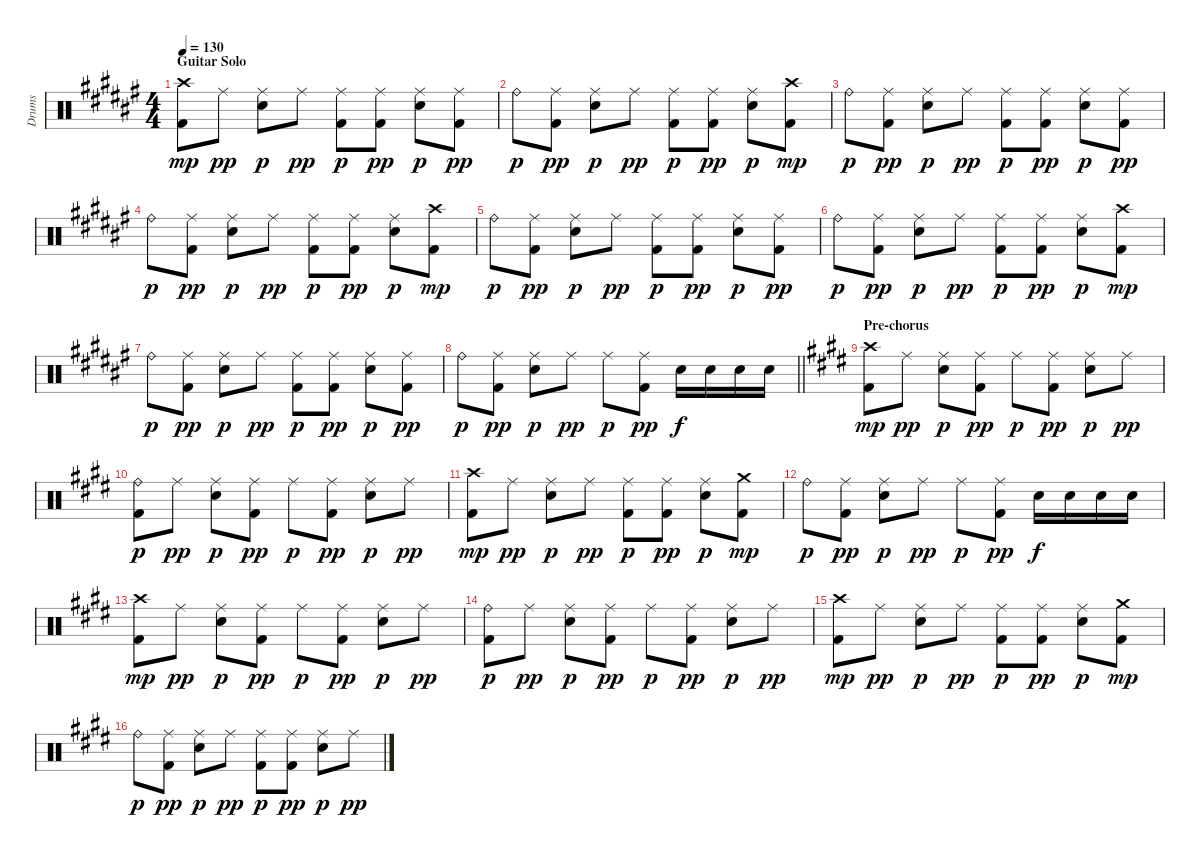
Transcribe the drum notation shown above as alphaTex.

\track ("Drums" "Drums") {instrument percussion}
\staff {score}
\articulation defaults
\ts (4 4)
\section ("" "Guitar Solo")
\tempo 130
\clef neutral
\ks f#
("Crash high (hit)" "Kick (hit) 2").8{dy mp} "Ride (middle)".8{dy pp} ("Ride (middle)" "Electric Snare (hit)").8{dy p} "Ride (middle)".8{dy pp} ("Ride (middle)" "Kick (hit) 2").8{dy p} ("Ride (middle)" "Kick (hit) 2").8{dy pp} ("Ride (middle)" "Electric Snare (hit)").8{dy p} ("Ride (middle)" "Kick (hit) 2").8{dy pp} |
\ks d#minor "Ride (bell)".8{dy p}
("Ride (middle)" "Kick (hit) 2").8{dy pp} ("Ride (middle)" "Electric Snare (hit)").8{dy p} "Ride (middle)".8{dy pp} ("Ride (middle)" "Kick (hit) 2").8{dy p} ("Ride (middle)" "Kick (hit) 2").8{dy pp} ("Ride (middle)" "Electric Snare (hit)").8{dy p} ("Crash high (hit)" "Kick (hit) 2").8{dy mp} |
\ks f# "Ride (bell)".8{dy p}
("Ride (middle)" "Kick (hit) 2").8{dy pp} ("Ride (middle)" "Electric Snare (hit)").8{dy p} "Ride (middle)".8{dy pp} ("Ride (middle)" "Kick (hit) 2").8{dy p} ("Ride (middle)" "Kick (hit) 2").8{dy pp} ("Ride (middle)" "Electric Snare (hit)").8{dy p} ("Ride (middle)" "Kick (hit) 2").8{dy pp} |
\ks d#minor "Ride (bell)".8{dy p}
("Ride (middle)" "Kick (hit) 2").8{dy pp} ("Ride (middle)" "Electric Snare (hit)").8{dy p} "Ride (middle)".8{dy pp} ("Ride (middle)" "Kick (hit) 2").8{dy p} ("Ride (middle)" "Kick (hit) 2").8{dy pp} ("Ride (middle)" "Electric Snare (hit)").8{dy p} ("Crash high (hit)" "Kick (hit) 2").8{dy mp} |
\ks f# "Ride (bell)".8{dy p}
("Ride (middle)" "Kick (hit) 2").8{dy pp} ("Ride (middle)" "Electric Snare (hit)").8{dy p} "Ride (middle)".8{dy pp} ("Ride (middle)" "Kick (hit) 2").8{dy p} ("Ride (middle)" "Kick (hit) 2").8{dy pp} ("Ride (middle)" "Electric Snare (hit)").8{dy p} ("Ride (middle)" "Kick (hit) 2").8{dy pp} |
\ks d#minor "Ride (bell)".8{dy p}
("Ride (middle)" "Kick (hit) 2").8{dy pp} ("Ride (middle)" "Electric Snare (hit)").8{dy p} "Ride (middle)".8{dy pp} ("Ride (middle)" "Kick (hit) 2").8{dy p} ("Ride (middle)" "Kick (hit) 2").8{dy pp} ("Ride (middle)" "Electric Snare (hit)").8{dy p} ("Crash high (hit)" "Kick (hit) 2").8{dy mp} |
\ks f# "Ride (bell)".8{dy p}
("Ride (middle)" "Kick (hit) 2").8{dy pp} ("Ride (middle)" "Electric Snare (hit)").8{dy p} "Ride (middle)".8{dy pp} ("Ride (middle)" "Kick (hit) 2").8{dy p} ("Ride (middle)" "Kick (hit) 2").8{dy pp} ("Ride (middle)" "Electric Snare (hit)").8{dy p} ("Ride (middle)" "Kick (hit) 2").8{dy pp} |
\barLineRight lightlight
\ks d#minor "Ride (bell)".8{dy p}
("Ride (middle)" "Kick (hit) 2").8{dy pp} ("Ride (middle)" "Electric Snare (hit)").8{dy p} "Ride (middle)".8{dy pp} "Ride (middle)".8{dy p} ("Ride (middle)" "Kick (hit) 2").8{dy pp} "Electric Snare (hit)".16{dy f} "Electric Snare (hit)".16 "Electric Snare (hit)".16 "Electric Snare (hit)".16 |
\section ("" "Pre-chorus")
\ks e
("Crash high (hit)" "Kick (hit) 2").8{dy mp} "Ride (middle)".8{dy pp} ("Ride (middle)" "Electric Snare (hit)").8{dy p} ("Ride (middle)" "Kick (hit) 2").8{dy pp} "Ride (middle)".8{dy p} ("Ride (middle)" "Kick (hit) 2").8{dy pp} ("Ride (middle)" "Electric Snare (hit)").8{dy p} "Ride (middle)".8{dy pp} |
\ks c#minor
("Ride (bell)" "Kick (hit) 2").8{dy p} "Ride (middle)".8{dy pp} ("Ride (middle)" "Electric Snare (hit)").8{dy p} ("Ride (middle)" "Kick (hit) 2").8{dy pp} "Ride (middle)".8{dy p} ("Ride (middle)" "Kick (hit) 2").8{dy pp} ("Ride (middle)" "Electric Snare (hit)").8{dy p} "Ride (middle)".8{dy pp} |
\ks e
("Crash high (hit)" "Kick (hit) 2").8{dy mp} "Ride (middle)".8{dy pp} ("Ride (middle)" "Electric Snare (hit)").8{dy p} "Ride (middle)".8{dy pp} ("Ride (middle)" "Kick (hit) 2").8{dy p} ("Ride (middle)" "Kick (hit) 2").8{dy pp} ("Ride (middle)" "Electric Snare (hit)").8{dy p} ("Crash medium (hit)" "Kick (hit) 2").8{dy mp} |
\ks c#minor "Ride (bell)".8{dy p}
("Ride (middle)" "Kick (hit) 2").8{dy pp} ("Ride (middle)" "Electric Snare (hit)").8{dy p} "Ride (middle)".8{dy pp} "Ride (middle)".8{dy p} ("Ride (middle)" "Kick (hit) 2").8{dy pp} "Electric Snare (hit)".16{dy f} "Electric Snare (hit)".16 "Electric Snare (hit)".16 "Electric Snare (hit)".16 |
\ks e
("Crash high (hit)" "Kick (hit) 2").8{dy mp} "Ride (middle)".8{dy pp} ("Ride (middle)" "Electric Snare (hit)").8{dy p} ("Ride (middle)" "Kick (hit) 2").8{dy pp} "Ride (middle)".8{dy p} ("Ride (middle)" "Kick (hit) 2").8{dy pp} ("Ride (middle)" "Electric Snare (hit)").8{dy p} "Ride (middle)".8{dy pp} |
\ks c#minor
("Ride (bell)" "Kick (hit) 2").8{dy p} "Ride (middle)".8{dy pp} ("Ride (middle)" "Electric Snare (hit)").8{dy p} ("Ride (middle)" "Kick (hit) 2").8{dy pp} "Ride (middle)".8{dy p} ("Ride (middle)" "Kick (hit) 2").8{dy pp} ("Ride (middle)" "Electric Snare (hit)").8{dy p} "Ride (middle)".8{dy pp} |
\ks e
("Crash high (hit)" "Kick (hit) 2").8{dy mp} "Ride (middle)".8{dy pp} ("Ride (middle)" "Electric Snare (hit)").8{dy p} "Ride (middle)".8{dy pp} ("Ride (middle)" "Kick (hit) 2").8{dy p} ("Ride (middle)" "Kick (hit) 2").8{dy pp} ("Ride (middle)" "Electric Snare (hit)").8{dy p} ("Crash medium (hit)" "Kick (hit) 2").8{dy mp} |
\ks c#minor "Ride (bell)".8{dy p}
("Ride (middle)" "Kick (hit) 2").8{dy pp} ("Ride (middle)" "Electric Snare (hit)").8{dy p} "Ride (middle)".8{dy pp} ("Ride (middle)" "Kick (hit) 2").8{dy p} ("Ride (middle)" "Kick (hit) 2").8{dy pp} ("Ride (middle)" "Electric Snare (hit)").8{dy p} "Ride (middle)".8{dy pp}
